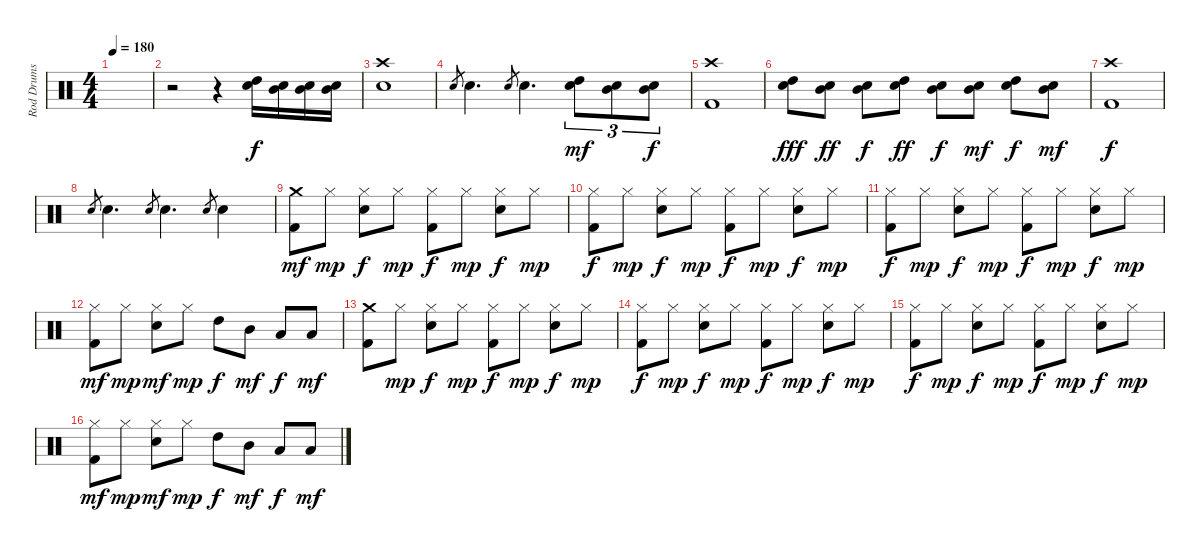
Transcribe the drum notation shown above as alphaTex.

\track ("Rod Drums" "Rod Drums") {instrument percussion}
\staff {score}
\articulation defaults
\ts (4 4)
\tempo 180
\clef neutral
\ks c
|
r.2 r.4 ("High Tom (hit)" "Snare (hit) 2").16 ("Mid Tom (hit)" "Snare (hit) 2").16 ("Mid Tom (hit)" "Snare (hit) 2").16 ("Mid Tom (hit)" "Snare (hit) 2").16 |
("Crash high (hit)" "Snare (hit) 2").1{dy f} |
"Snare (hit) 2".8{gr} "Snare (hit) 2".4{d} "Snare (hit) 2".8{gr} "Snare (hit) 2".4{d} ("High Tom (hit)" "Snare (hit) 2").8{tu (3 2) dy mf} ("Mid Tom (hit)" "Snare (hit) 2").8{tu (3 2)} ("Mid Tom (hit)" "Snare (hit) 2").8{tu (3 2) dy f} |
("Crash high (hit)" "Kick (hit) 2").1 |
("Snare (hit) 2" "High Tom (hit)").8{dy fff} ("Snare (hit) 2" "Mid Tom (hit)").8{dy ff} ("Snare (hit) 2" "Mid Tom (hit)").8{dy f} ("Snare (hit) 2" "High Tom (hit)").8{dy ff} ("Snare (hit) 2" "Mid Tom (hit)").8{dy f} ("Snare (hit) 2" "Mid Tom (hit)").8{dy mf} ("Snare (hit) 2" "High Tom (hit)").8{dy f} ("Snare (hit) 2" "Mid Tom (hit)").8{dy mf} |
("Crash high (hit)" "Kick (hit) 2").1{dy f} |
"Snare (hit) 2".8{gr} "Snare (hit) 2".4{d} "Snare (hit) 2".8{gr} "Snare (hit) 2".4{d} "Snare (hit) 2".8{gr} "Snare (hit) 2".4 |
("Crash medium (hit)" "Kick (hit) 2").8{dy mf} "Hi-Hat (closed)".8{dy mp} ("Hi-Hat (closed)" "Snare (hit) 2").8{dy f} "Hi-Hat (closed)".8{dy mp} ("Hi-Hat (closed)" "Kick (hit) 2").8{dy f} "Hi-Hat (closed)".8{dy mp} ("Hi-Hat (closed)" "Snare (hit) 2").8{dy f} "Hi-Hat (closed)".8{dy mp} |
("Hi-Hat (closed)" "Kick (hit) 2").8{dy f} "Hi-Hat (closed)".8{dy mp} ("Hi-Hat (closed)" "Snare (hit) 2").8{dy f} "Hi-Hat (closed)".8{dy mp} ("Hi-Hat (closed)" "Kick (hit) 2").8{dy f} "Hi-Hat (closed)".8{dy mp} ("Hi-Hat (closed)" "Snare (hit) 2").8{dy f} "Hi-Hat (closed)".8{dy mp} |
("Hi-Hat (closed)" "Kick (hit) 2").8{dy f} "Hi-Hat (closed)".8{dy mp} ("Hi-Hat (closed)" "Snare (hit) 2").8{dy f} "Hi-Hat (closed)".8{dy mp} ("Hi-Hat (closed)" "Kick (hit) 2").8{dy f} "Hi-Hat (closed)".8{dy mp} ("Hi-Hat (closed)" "Snare (hit) 2").8{dy f} "Hi-Hat (closed)".8{dy mp} |
("Hi-Hat (closed)" "Kick (hit) 2").8{dy mf} "Hi-Hat (closed)".8{dy mp} ("Hi-Hat (closed)" "Snare (hit) 2").8{dy mf} "Hi-Hat (closed)".8{dy mp} "High Tom (hit)".8{dy f} "Mid Tom (hit)".8{dy mf} "Low Tom (hit)".8{dy f} "Low Tom (hit)".8{dy mf} |
("Crash medium (hit)" "Kick (hit) 2").8 "Hi-Hat (closed)".8{dy mp} ("Hi-Hat (closed)" "Snare (hit) 2").8{dy f} "Hi-Hat (closed)".8{dy mp} ("Hi-Hat (closed)" "Kick (hit) 2").8{dy f} "Hi-Hat (closed)".8{dy mp} ("Hi-Hat (closed)" "Snare (hit) 2").8{dy f} "Hi-Hat (closed)".8{dy mp} |
("Hi-Hat (closed)" "Kick (hit) 2").8{dy f} "Hi-Hat (closed)".8{dy mp} ("Hi-Hat (closed)" "Snare (hit) 2").8{dy f} "Hi-Hat (closed)".8{dy mp} ("Hi-Hat (closed)" "Kick (hit) 2").8{dy f} "Hi-Hat (closed)".8{dy mp} ("Hi-Hat (closed)" "Snare (hit) 2").8{dy f} "Hi-Hat (closed)".8{dy mp} |
("Hi-Hat (closed)" "Kick (hit) 2").8{dy f} "Hi-Hat (closed)".8{dy mp} ("Hi-Hat (closed)" "Snare (hit) 2").8{dy f} "Hi-Hat (closed)".8{dy mp} ("Hi-Hat (closed)" "Kick (hit) 2").8{dy f} "Hi-Hat (closed)".8{dy mp} ("Hi-Hat (closed)" "Snare (hit) 2").8{dy f} "Hi-Hat (closed)".8{dy mp} |
("Hi-Hat (closed)" "Kick (hit) 2").8{dy mf} "Hi-Hat (closed)".8{dy mp} ("Hi-Hat (closed)" "Snare (hit) 2").8{dy mf} "Hi-Hat (closed)".8{dy mp} "High Tom (hit)".8{dy f} "Mid Tom (hit)".8{dy mf} "Low Tom (hit)".8{dy f} "Low Tom (hit)".8{dy mf}
